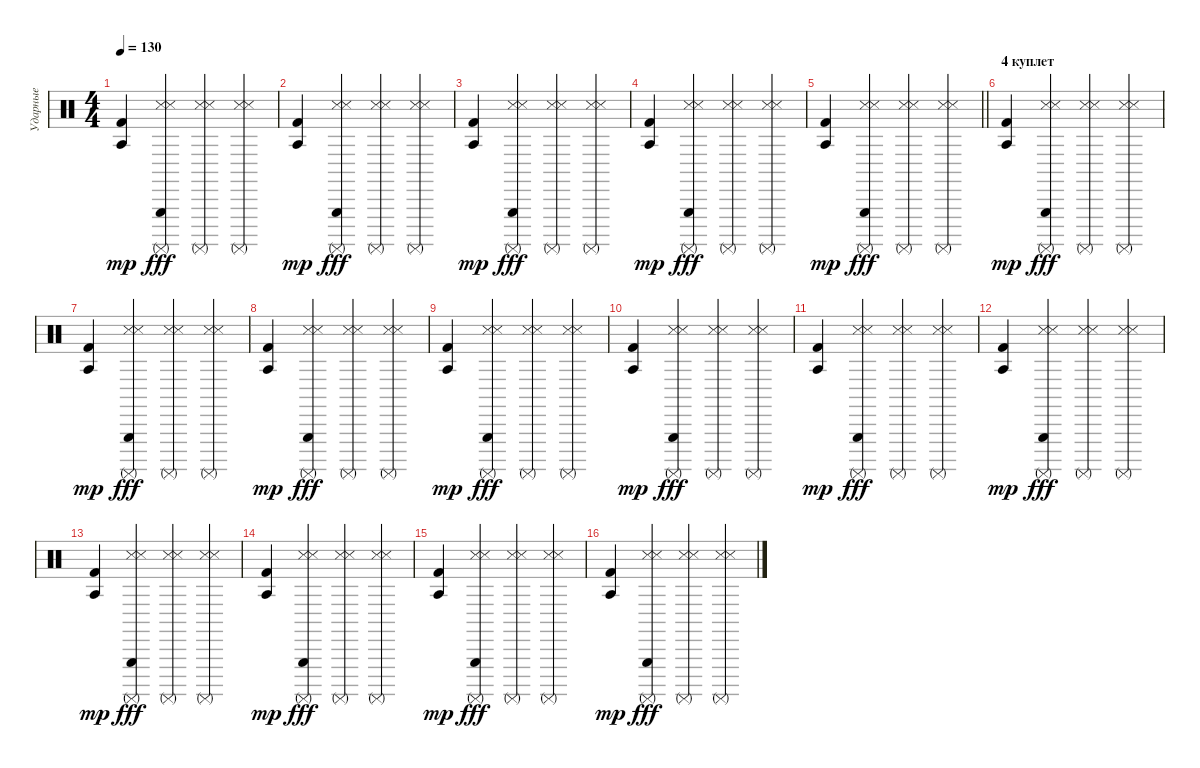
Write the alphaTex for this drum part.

\track ("Ударные" "Ударные") {instrument percussion}
\staff {score}
\articulation defaults
\ts (4 4)
\tempo 130
\clef neutral
\ks c
("Kick (hit) 2" "Agogo tow (hit)").4{dy mp} ("Metronome (hit)" "Snare (side stick) 3" "Surdo (mute)" "Triangle (hit)").4{dy fff} ("Metronome (hit)" "Snare (side stick) 3" "Surdo (mute)").4 ("Metronome (hit)" "Snare (side stick) 3" "Surdo (mute)").4 |
("Kick (hit) 2" "Agogo tow (hit)").4{dy mp} ("Metronome (hit)" "Snare (side stick) 3" "Surdo (mute)" "Triangle (hit)").4{dy fff} ("Metronome (hit)" "Snare (side stick) 3" "Surdo (mute)").4 ("Metronome (hit)" "Snare (side stick) 3" "Surdo (mute)").4 |
("Kick (hit) 2" "Agogo tow (hit)").4{dy mp} ("Metronome (hit)" "Snare (side stick) 3" "Surdo (mute)" "Triangle (hit)").4{dy fff} ("Metronome (hit)" "Snare (side stick) 3" "Surdo (mute)").4 ("Metronome (hit)" "Snare (side stick) 3" "Surdo (mute)").4 |
("Kick (hit) 2" "Agogo tow (hit)").4{dy mp} ("Metronome (hit)" "Snare (side stick) 3" "Surdo (mute)" "Triangle (hit)").4{dy fff} ("Metronome (hit)" "Snare (side stick) 3" "Surdo (mute)").4 ("Metronome (hit)" "Snare (side stick) 3" "Surdo (mute)").4 |
\barLineRight lightlight
("Kick (hit) 2" "Agogo tow (hit)").4{dy mp} ("Metronome (hit)" "Snare (side stick) 3" "Surdo (mute)" "Triangle (hit)").4{dy fff} ("Metronome (hit)" "Snare (side stick) 3" "Surdo (mute)").4 ("Metronome (hit)" "Snare (side stick) 3" "Surdo (mute)").4 |
\section ("" "4 куплет")
("Kick (hit) 2" "Agogo tow (hit)").4{dy mp} ("Metronome (hit)" "Snare (side stick) 3" "Surdo (mute)" "Triangle (hit)").4{dy fff} ("Metronome (hit)" "Snare (side stick) 3" "Surdo (mute)").4 ("Metronome (hit)" "Snare (side stick) 3" "Surdo (mute)").4 |
("Kick (hit) 2" "Agogo tow (hit)").4{dy mp} ("Metronome (hit)" "Snare (side stick) 3" "Surdo (mute)" "Triangle (hit)").4{dy fff} ("Metronome (hit)" "Snare (side stick) 3" "Surdo (mute)").4 ("Metronome (hit)" "Snare (side stick) 3" "Surdo (mute)").4 |
("Kick (hit) 2" "Agogo tow (hit)").4{dy mp} ("Metronome (hit)" "Snare (side stick) 3" "Surdo (mute)" "Triangle (hit)").4{dy fff} ("Metronome (hit)" "Snare (side stick) 3" "Surdo (mute)").4 ("Metronome (hit)" "Snare (side stick) 3" "Surdo (mute)").4 |
("Kick (hit) 2" "Agogo tow (hit)").4{dy mp} ("Metronome (hit)" "Snare (side stick) 3" "Surdo (mute)" "Triangle (hit)").4{dy fff} ("Metronome (hit)" "Snare (side stick) 3" "Surdo (mute)").4 ("Metronome (hit)" "Snare (side stick) 3" "Surdo (mute)").4 |
("Kick (hit) 2" "Agogo tow (hit)").4{dy mp} ("Metronome (hit)" "Snare (side stick) 3" "Surdo (mute)" "Triangle (hit)").4{dy fff} ("Metronome (hit)" "Snare (side stick) 3" "Surdo (mute)").4 ("Metronome (hit)" "Snare (side stick) 3" "Surdo (mute)").4 |
("Kick (hit) 2" "Agogo tow (hit)").4{dy mp} ("Metronome (hit)" "Snare (side stick) 3" "Surdo (mute)" "Triangle (hit)").4{dy fff} ("Metronome (hit)" "Snare (side stick) 3" "Surdo (mute)").4 ("Metronome (hit)" "Snare (side stick) 3" "Surdo (mute)").4 |
("Kick (hit) 2" "Agogo tow (hit)").4{dy mp} ("Metronome (hit)" "Snare (side stick) 3" "Surdo (mute)" "Triangle (hit)").4{dy fff} ("Metronome (hit)" "Snare (side stick) 3" "Surdo (mute)").4 ("Metronome (hit)" "Snare (side stick) 3" "Surdo (mute)").4 |
("Kick (hit) 2" "Agogo tow (hit)").4{dy mp} ("Metronome (hit)" "Snare (side stick) 3" "Surdo (mute)" "Triangle (hit)").4{dy fff} ("Metronome (hit)" "Snare (side stick) 3" "Surdo (mute)").4 ("Metronome (hit)" "Snare (side stick) 3" "Surdo (mute)").4 |
("Kick (hit) 2" "Agogo tow (hit)").4{dy mp} ("Metronome (hit)" "Snare (side stick) 3" "Surdo (mute)" "Triangle (hit)").4{dy fff} ("Metronome (hit)" "Snare (side stick) 3" "Surdo (mute)").4 ("Metronome (hit)" "Snare (side stick) 3" "Surdo (mute)").4 |
("Kick (hit) 2" "Agogo tow (hit)").4{dy mp} ("Metronome (hit)" "Snare (side stick) 3" "Surdo (mute)" "Triangle (hit)").4{dy fff} ("Metronome (hit)" "Snare (side stick) 3" "Surdo (mute)").4 ("Metronome (hit)" "Snare (side stick) 3" "Surdo (mute)").4 |
("Kick (hit) 2" "Agogo tow (hit)").4{dy mp} ("Metronome (hit)" "Snare (side stick) 3" "Surdo (mute)" "Triangle (hit)").4{dy fff} ("Metronome (hit)" "Snare (side stick) 3" "Surdo (mute)").4 ("Metronome (hit)" "Snare (side stick) 3" "Surdo (mute)").4
